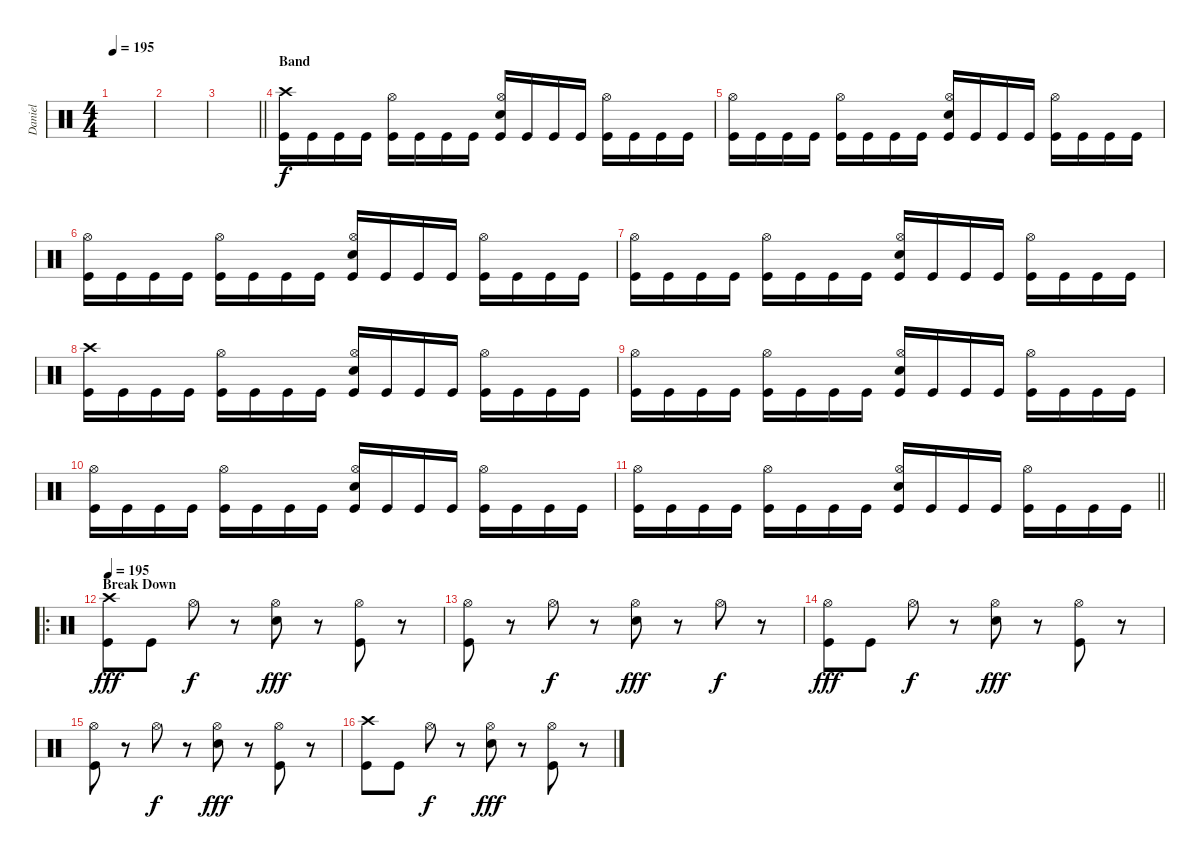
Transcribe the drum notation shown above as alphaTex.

\track ("Daniel" "Daniel") {instrument percussion}
\staff {score}
\articulation defaults
\ts (4 4)
\tempo 195
\clef neutral
\ks c
|
|
\barLineRight lightlight
|
\section ("" "Band")
("Crash high (hit)" "Kick (hit)").16 "Kick (hit)".16 "Kick (hit)".16 "Kick (hit)".16 ("Hi-Hat (open)" "Kick (hit)").16 "Kick (hit)".16 "Kick (hit)".16 "Kick (hit)".16 ("Hi-Hat (open)" "Snare (hit) 2" "Kick (hit)").16 "Kick (hit)".16 "Kick (hit)".16 "Kick (hit)".16 ("Hi-Hat (open)" "Kick (hit)").16 "Kick (hit)".16 "Kick (hit)".16 "Kick (hit)".16 |
("Hi-Hat (open)" "Kick (hit)").16 "Kick (hit)".16 "Kick (hit)".16 "Kick (hit)".16 ("Hi-Hat (open)" "Kick (hit)").16 "Kick (hit)".16 "Kick (hit)".16 "Kick (hit)".16 ("Hi-Hat (open)" "Snare (hit) 2" "Kick (hit)").16 "Kick (hit)".16 "Kick (hit)".16 "Kick (hit)".16 ("Hi-Hat (open)" "Kick (hit)").16 "Kick (hit)".16 "Kick (hit)".16 "Kick (hit)".16 |
("Hi-Hat (open)" "Kick (hit)").16 "Kick (hit)".16 "Kick (hit)".16 "Kick (hit)".16 ("Hi-Hat (open)" "Kick (hit)").16 "Kick (hit)".16 "Kick (hit)".16 "Kick (hit)".16 ("Hi-Hat (open)" "Snare (hit) 2" "Kick (hit)").16 "Kick (hit)".16 "Kick (hit)".16 "Kick (hit)".16 ("Hi-Hat (open)" "Kick (hit)").16 "Kick (hit)".16 "Kick (hit)".16 "Kick (hit)".16 |
("Hi-Hat (open)" "Kick (hit)").16 "Kick (hit)".16 "Kick (hit)".16 "Kick (hit)".16 ("Hi-Hat (open)" "Kick (hit)").16 "Kick (hit)".16 "Kick (hit)".16 "Kick (hit)".16 ("Hi-Hat (open)" "Snare (hit) 2" "Kick (hit)").16 "Kick (hit)".16 "Kick (hit)".16 "Kick (hit)".16 ("Hi-Hat (open)" "Kick (hit)").16 "Kick (hit)".16 "Kick (hit)".16 "Kick (hit)".16 |
("Crash high (hit)" "Kick (hit)").16 "Kick (hit)".16 "Kick (hit)".16 "Kick (hit)".16 ("Hi-Hat (open)" "Kick (hit)").16 "Kick (hit)".16 "Kick (hit)".16 "Kick (hit)".16 ("Hi-Hat (open)" "Snare (hit) 2" "Kick (hit)").16 "Kick (hit)".16 "Kick (hit)".16 "Kick (hit)".16 ("Hi-Hat (open)" "Kick (hit)").16 "Kick (hit)".16 "Kick (hit)".16 "Kick (hit)".16 |
("Hi-Hat (open)" "Kick (hit)").16 "Kick (hit)".16 "Kick (hit)".16 "Kick (hit)".16 ("Hi-Hat (open)" "Kick (hit)").16 "Kick (hit)".16 "Kick (hit)".16 "Kick (hit)".16 ("Hi-Hat (open)" "Snare (hit) 2" "Kick (hit)").16 "Kick (hit)".16 "Kick (hit)".16 "Kick (hit)".16 ("Hi-Hat (open)" "Kick (hit)").16 "Kick (hit)".16 "Kick (hit)".16 "Kick (hit)".16 |
("Hi-Hat (open)" "Kick (hit)").16 "Kick (hit)".16 "Kick (hit)".16 "Kick (hit)".16 ("Hi-Hat (open)" "Kick (hit)").16 "Kick (hit)".16 "Kick (hit)".16 "Kick (hit)".16 ("Hi-Hat (open)" "Snare (hit) 2" "Kick (hit)").16 "Kick (hit)".16 "Kick (hit)".16 "Kick (hit)".16 ("Hi-Hat (open)" "Kick (hit)").16 "Kick (hit)".16 "Kick (hit)".16 "Kick (hit)".16 |
\barLineRight lightlight
("Hi-Hat (open)" "Kick (hit)").16 "Kick (hit)".16 "Kick (hit)".16 "Kick (hit)".16 ("Hi-Hat (open)" "Kick (hit)").16 "Kick (hit)".16 "Kick (hit)".16 "Kick (hit)".16 ("Hi-Hat (open)" "Snare (hit) 2" "Kick (hit)").16 "Kick (hit)".16 "Kick (hit)".16 "Kick (hit)".16 ("Hi-Hat (open)" "Kick (hit)").16 "Kick (hit)".16 "Kick (hit)".16 "Kick (hit)".16 |
\ro
\section ("" "Break Down")
\tempo 195
("Crash high (hit)" "Kick (hit)").8{dy fff} "Kick (hit)".8 "Hi-Hat (open)".8{dy f} r.8 ("Hi-Hat (open)" "Snare (hit) 2").8{dy fff} r.8 ("Hi-Hat (open)" "Kick (hit)").8 r.8 |
("Hi-Hat (open)" "Kick (hit)").8 r.8 "Hi-Hat (open)".8{dy f} r.8 ("Hi-Hat (open)" "Snare (hit) 2").8{dy fff} r.8 "Hi-Hat (open)".8{dy f} r.8 |
("Hi-Hat (open)" "Kick (hit)").8{dy fff} "Kick (hit)".8 "Hi-Hat (open)".8{dy f} r.8 ("Hi-Hat (open)" "Snare (hit) 2").8{dy fff} r.8 ("Hi-Hat (open)" "Kick (hit)").8 r.8 |
("Hi-Hat (open)" "Kick (hit)").8 r.8 "Hi-Hat (open)".8{dy f} r.8 ("Hi-Hat (open)" "Snare (hit) 2").8{dy fff} r.8 ("Hi-Hat (open)" "Kick (hit)").8 r.8 |
("Crash high (hit)" "Kick (hit)").8 "Kick (hit)".8 "Hi-Hat (open)".8{dy f} r.8 ("Hi-Hat (open)" "Snare (hit) 2").8{dy fff} r.8 ("Hi-Hat (open)" "Kick (hit)").8 r.8
